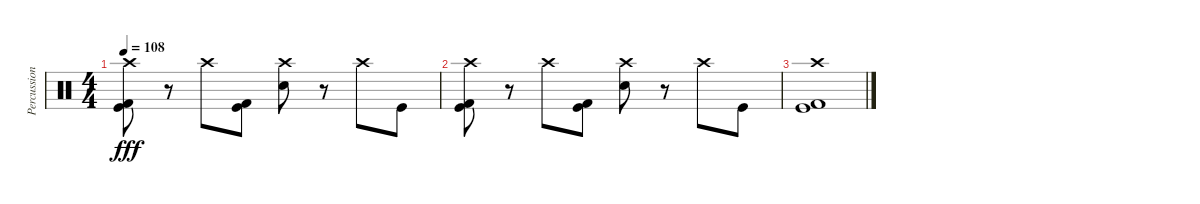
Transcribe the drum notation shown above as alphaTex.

\track ("Percussion" "Percussion") {instrument percussion}
\staff {score}
\articulation defaults
\ts (4 4)
\tempo 108
\clef neutral
\ks c
("Crash high (hit)" "Kick (hit) 2" "Kick (hit)").8{dy fff} r.8 "Crash high (hit)".8 ("Kick (hit) 2" "Kick (hit)").8 ("Crash high (hit)" "Snare (hit) 2").8 r.8 "Crash high (hit)".8 "Kick (hit)".8 |
("Crash high (hit)" "Kick (hit) 2" "Kick (hit)").8 r.8 "Crash high (hit)".8 ("Kick (hit) 2" "Kick (hit)").8 ("Crash high (hit)" "Snare (hit) 2").8 r.8 "Crash high (hit)".8 "Kick (hit)".8 |
("Crash high (hit)" "Kick (hit) 2" "Kick (hit)").1
